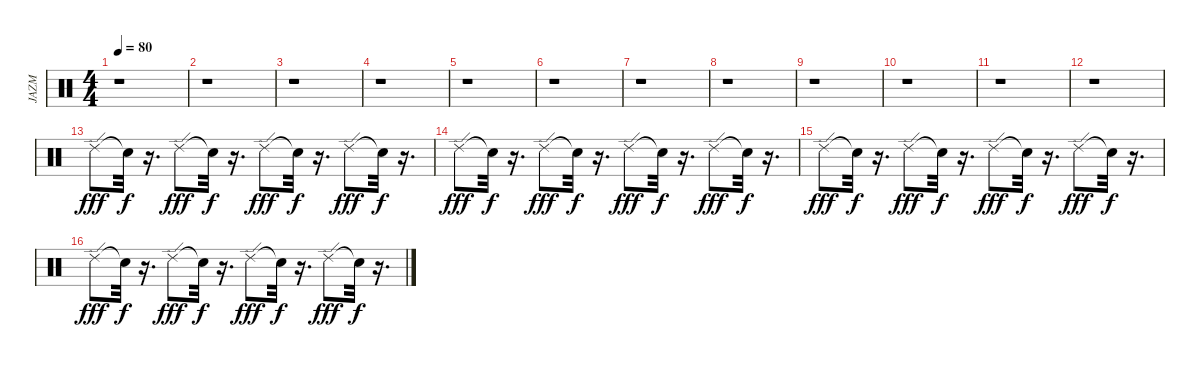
\track ("JAZM" "JAZM") {instrument percussion}
\staff {score}
\articulation defaults
\ts (4 4)
\tempo 80
\clef neutral
\ks c
r.1{dy fff} |
r.1 |
r.1 |
r.1 |
r.1 |
r.1 |
r.1 |
r.1 |
r.1 |
r.1 |
r.1 |
r.1 |
"Ride (edge) 2".8 "Snare (hit)"{t}.32{dy f} r.16{d} "Ride (edge) 2".8{dy fff} "Snare (hit)"{t}.32{dy f} r.16{d} "Ride (edge) 2".8{dy fff} "Snare (hit)"{t}.32{dy f} r.16{d} "Ride (edge) 2".8{dy fff} "Snare (hit)"{t}.32{dy f} r.16{d} |
"Ride (edge) 2".8{dy fff} "Snare (hit)"{t}.32{dy f} r.16{d} "Ride (edge) 2".8{dy fff} "Snare (hit)"{t}.32{dy f} r.16{d} "Ride (edge) 2".8{dy fff} "Snare (hit)"{t}.32{dy f} r.16{d} "Ride (edge) 2".8{dy fff} "Snare (hit)"{t}.32{dy f} r.16{d} |
"Ride (edge) 2".8{dy fff} "Snare (hit)"{t}.32{dy f} r.16{d} "Ride (edge) 2".8{dy fff} "Snare (hit)"{t}.32{dy f} r.16{d} "Ride (edge) 2".8{dy fff} "Snare (hit)"{t}.32{dy f} r.16{d} "Ride (edge) 2".8{dy fff} "Snare (hit)"{t}.32{dy f} r.16{d} |
"Ride (edge) 2".8{dy fff} "Snare (hit)"{t}.32{dy f} r.16{d} "Ride (edge) 2".8{dy fff} "Snare (hit)"{t}.32{dy f} r.16{d} "Ride (edge) 2".8{dy fff} "Snare (hit)"{t}.32{dy f} r.16{d} "Ride (edge) 2".8{dy fff} "Snare (hit)"{t}.32{dy f} r.16{d}
